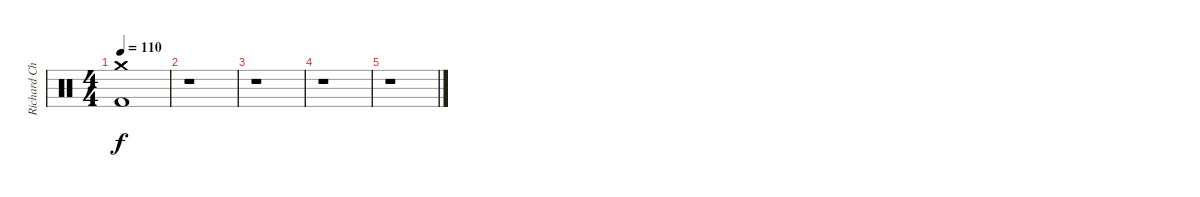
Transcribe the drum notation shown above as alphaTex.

\track ("Richard Christy" "Richard Ch") {instrument percussion}
\staff {score}
\articulation defaults
\ts (4 4)
\tempo 110
\clef neutral
\ks c
("Crash medium (hit)" "Kick (hit) 2").1{dy f} |
r.1 |
r.1 |
r.1 |
r.1
